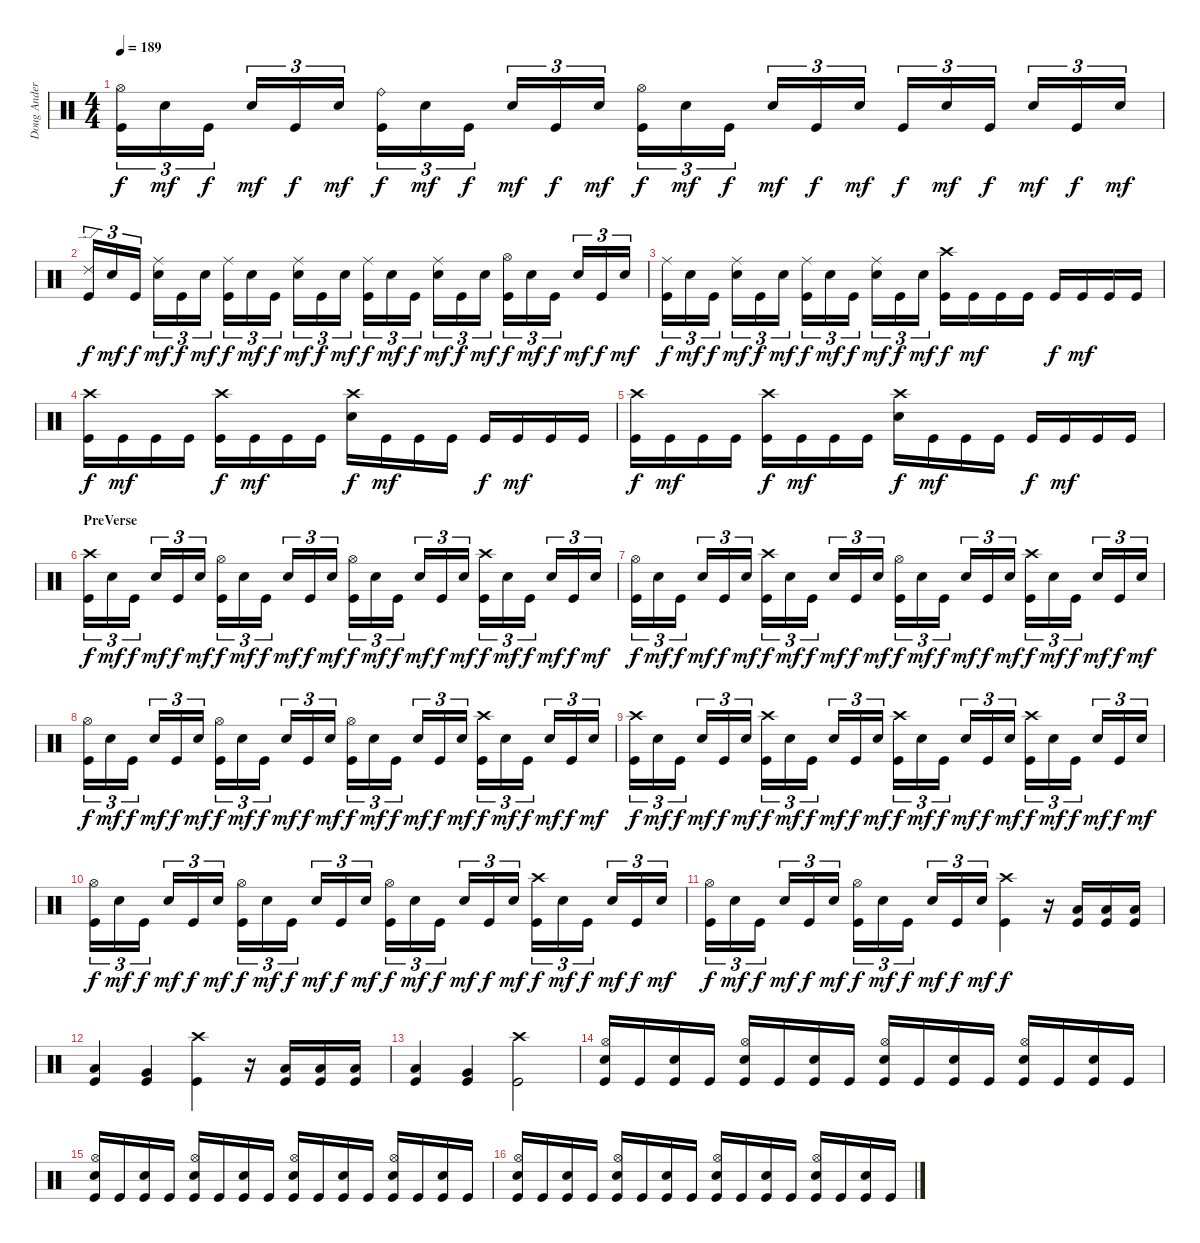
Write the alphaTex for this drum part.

\track ("Doug Anderson" "Doug Ander") {instrument percussion}
\staff {score}
\articulation defaults
\ts (4 4)
\tempo 189
\clef neutral
\ks c
("Kick (hit)" "Hi-Hat (open)").16{tu (3 2) dy f} "Snare (hit) 2".16{tu (3 2) dy mf} "Kick (hit)".16{tu (3 2) dy f beam splitsecondary} "Snare (hit) 2".16{tu (3 2) dy mf} "Kick (hit)".16{tu (3 2) dy f} "Snare (hit) 2".16{tu (3 2) dy mf} ("Kick (hit)" "Ride (bell)").16{tu (3 2) dy f} "Snare (hit) 2".16{tu (3 2) dy mf} "Kick (hit)".16{tu (3 2) dy f beam splitsecondary} "Snare (hit) 2".16{tu (3 2) dy mf} "Kick (hit)".16{tu (3 2) dy f} "Snare (hit) 2".16{tu (3 2) dy mf} ("Kick (hit)" "Hi-Hat (open)").16{tu (3 2) dy f} "Snare (hit) 2".16{tu (3 2) dy mf} "Kick (hit)".16{tu (3 2) dy f beam splitsecondary} "Snare (hit) 2".16{tu (3 2) dy mf} "Kick (hit)".16{tu (3 2) dy f} "Snare (hit) 2".16{tu (3 2) dy mf} "Kick (hit)".16{tu (3 2) dy f} "Snare (hit) 2".16{tu (3 2) dy mf} "Kick (hit)".16{tu (3 2) dy f beam splitsecondary} "Snare (hit) 2".16{tu (3 2) dy mf} "Kick (hit)".16{tu (3 2) dy f} "Snare (hit) 2".16{tu (3 2) dy mf} |
("Kick (hit)" "Ride (edge) 2").16{tu (3 2) dy f} "Snare (hit) 2".16{tu (3 2) dy mf} "Kick (hit)".16{tu (3 2) dy f beam splitsecondary} ("Snare (hit) 2" "Ride (middle)").16{tu (3 2) dy mf} "Kick (hit)".16{tu (3 2) dy f} "Snare (hit) 2".16{tu (3 2) dy mf} ("Kick (hit)" "Ride (middle)").16{tu (3 2) dy f} "Snare (hit) 2".16{tu (3 2) dy mf} "Kick (hit)".16{tu (3 2) dy f beam splitsecondary} ("Snare (hit) 2" "Ride (middle)").16{tu (3 2) dy mf} "Kick (hit)".16{tu (3 2) dy f} "Snare (hit) 2".16{tu (3 2) dy mf} ("Kick (hit)" "Ride (middle)").16{tu (3 2) dy f} "Snare (hit) 2".16{tu (3 2) dy mf} "Kick (hit)".16{tu (3 2) dy f beam splitsecondary} ("Snare (hit) 2" "Ride (middle)").16{tu (3 2) dy mf} "Kick (hit)".16{tu (3 2) dy f} "Snare (hit) 2".16{tu (3 2) dy mf} ("Kick (hit)" "Hi-Hat (open)").16{tu (3 2) dy f} "Snare (hit) 2".16{tu (3 2) dy mf} "Kick (hit)".16{tu (3 2) dy f beam splitsecondary} "Snare (hit) 2".16{tu (3 2) dy mf} "Kick (hit)".16{tu (3 2) dy f} "Snare (hit) 2".16{tu (3 2) dy mf} |
("Kick (hit)" "Ride (middle)").16{tu (3 2) dy f} "Snare (hit) 2".16{tu (3 2) dy mf} "Kick (hit)".16{tu (3 2) dy f beam splitsecondary} ("Snare (hit) 2" "Ride (middle)").16{tu (3 2) dy mf} "Kick (hit)".16{tu (3 2) dy f} "Snare (hit) 2".16{tu (3 2) dy mf} ("Kick (hit)" "Ride (middle)").16{tu (3 2) dy f} "Snare (hit) 2".16{tu (3 2) dy mf} "Kick (hit)".16{tu (3 2) dy f beam splitsecondary} ("Snare (hit) 2" "Ride (middle)").16{tu (3 2) dy mf} "Kick (hit)".16{tu (3 2) dy f} "Snare (hit) 2".16{tu (3 2) dy mf} ("Kick (hit)" "Crash high (hit)").16{dy f} "Kick (hit)".16{dy mf} "Kick (hit)".16 "Kick (hit)".16 "Kick (hit)".16{dy f} "Kick (hit)".16{dy mf} "Kick (hit)".16 "Kick (hit)".16 |
("Kick (hit)" "Crash high (hit)").16{dy f} "Kick (hit)".16{dy mf} "Kick (hit)".16 "Kick (hit)".16 ("Kick (hit)" "Crash high (hit)").16{dy f} "Kick (hit)".16{dy mf} "Kick (hit)".16 "Kick (hit)".16 ("Crash high (hit)" "Snare (hit) 2").16{dy f} "Kick (hit)".16{dy mf} "Kick (hit)".16 "Kick (hit)".16 "Kick (hit)".16{dy f} "Kick (hit)".16{dy mf} "Kick (hit)".16 "Kick (hit)".16 |
("Kick (hit)" "Crash high (hit)").16{dy f} "Kick (hit)".16{dy mf} "Kick (hit)".16 "Kick (hit)".16 ("Kick (hit)" "Crash high (hit)").16{dy f} "Kick (hit)".16{dy mf} "Kick (hit)".16 "Kick (hit)".16 ("Crash high (hit)" "Snare (hit) 2").16{dy f} "Kick (hit)".16{dy mf} "Kick (hit)".16 "Kick (hit)".16 "Kick (hit)".16{dy f} "Kick (hit)".16{dy mf} "Kick (hit)".16 "Kick (hit)".16 |
\section ("" "PreVerse")
("Kick (hit)" "Crash high (hit)").16{tu (3 2) dy f} "Snare (hit) 2".16{tu (3 2) dy mf} "Kick (hit)".16{tu (3 2) dy f beam splitsecondary} "Snare (hit) 2".16{tu (3 2) dy mf} "Kick (hit)".16{tu (3 2) dy f} "Snare (hit) 2".16{tu (3 2) dy mf} ("Kick (hit)" "Hi-Hat (open)").16{tu (3 2) dy f} "Snare (hit) 2".16{tu (3 2) dy mf} "Kick (hit)".16{tu (3 2) dy f beam splitsecondary} "Snare (hit) 2".16{tu (3 2) dy mf} "Kick (hit)".16{tu (3 2) dy f} "Snare (hit) 2".16{tu (3 2) dy mf} ("Kick (hit)" "Hi-Hat (open)").16{tu (3 2) dy f} "Snare (hit) 2".16{tu (3 2) dy mf} "Kick (hit)".16{tu (3 2) dy f beam splitsecondary} "Snare (hit) 2".16{tu (3 2) dy mf} "Kick (hit)".16{tu (3 2) dy f} "Snare (hit) 2".16{tu (3 2) dy mf} ("Kick (hit)" "Crash high (hit)").16{tu (3 2) dy f} "Snare (hit) 2".16{tu (3 2) dy mf} "Kick (hit)".16{tu (3 2) dy f beam splitsecondary} "Snare (hit) 2".16{tu (3 2) dy mf} "Kick (hit)".16{tu (3 2) dy f} "Snare (hit) 2".16{tu (3 2) dy mf} |
("Kick (hit)" "Hi-Hat (open)").16{tu (3 2) dy f} "Snare (hit) 2".16{tu (3 2) dy mf} "Kick (hit)".16{tu (3 2) dy f beam splitsecondary} "Snare (hit) 2".16{tu (3 2) dy mf} "Kick (hit)".16{tu (3 2) dy f} "Snare (hit) 2".16{tu (3 2) dy mf} ("Kick (hit)" "Crash high (hit)").16{tu (3 2) dy f} "Snare (hit) 2".16{tu (3 2) dy mf} "Kick (hit)".16{tu (3 2) dy f beam splitsecondary} "Snare (hit) 2".16{tu (3 2) dy mf} "Kick (hit)".16{tu (3 2) dy f} "Snare (hit) 2".16{tu (3 2) dy mf} ("Kick (hit)" "Hi-Hat (open)").16{tu (3 2) dy f} "Snare (hit) 2".16{tu (3 2) dy mf} "Kick (hit)".16{tu (3 2) dy f beam splitsecondary} "Snare (hit) 2".16{tu (3 2) dy mf} "Kick (hit)".16{tu (3 2) dy f} "Snare (hit) 2".16{tu (3 2) dy mf} ("Kick (hit)" "Crash high (hit)").16{tu (3 2) dy f} "Snare (hit) 2".16{tu (3 2) dy mf} "Kick (hit)".16{tu (3 2) dy f beam splitsecondary} "Snare (hit) 2".16{tu (3 2) dy mf} "Kick (hit)".16{tu (3 2) dy f} "Snare (hit) 2".16{tu (3 2) dy mf} |
("Kick (hit)" "Hi-Hat (open)").16{tu (3 2) dy f} "Snare (hit) 2".16{tu (3 2) dy mf} "Kick (hit)".16{tu (3 2) dy f beam splitsecondary} "Snare (hit) 2".16{tu (3 2) dy mf} "Kick (hit)".16{tu (3 2) dy f} "Snare (hit) 2".16{tu (3 2) dy mf} ("Kick (hit)" "Hi-Hat (open)").16{tu (3 2) dy f} "Snare (hit) 2".16{tu (3 2) dy mf} "Kick (hit)".16{tu (3 2) dy f beam splitsecondary} "Snare (hit) 2".16{tu (3 2) dy mf} "Kick (hit)".16{tu (3 2) dy f} "Snare (hit) 2".16{tu (3 2) dy mf} ("Kick (hit)" "Hi-Hat (open)").16{tu (3 2) dy f} "Snare (hit) 2".16{tu (3 2) dy mf} "Kick (hit)".16{tu (3 2) dy f beam splitsecondary} "Snare (hit) 2".16{tu (3 2) dy mf} "Kick (hit)".16{tu (3 2) dy f} "Snare (hit) 2".16{tu (3 2) dy mf} ("Kick (hit)" "Crash high (hit)").16{tu (3 2) dy f} "Snare (hit) 2".16{tu (3 2) dy mf} "Kick (hit)".16{tu (3 2) dy f beam splitsecondary} "Snare (hit) 2".16{tu (3 2) dy mf} "Kick (hit)".16{tu (3 2) dy f} "Snare (hit) 2".16{tu (3 2) dy mf} |
("Kick (hit)" "Crash high (hit)").16{tu (3 2) dy f} "Snare (hit) 2".16{tu (3 2) dy mf} "Kick (hit)".16{tu (3 2) dy f beam splitsecondary} "Snare (hit) 2".16{tu (3 2) dy mf} "Kick (hit)".16{tu (3 2) dy f} "Snare (hit) 2".16{tu (3 2) dy mf} ("Kick (hit)" "Crash high (hit)").16{tu (3 2) dy f} "Snare (hit) 2".16{tu (3 2) dy mf} "Kick (hit)".16{tu (3 2) dy f beam splitsecondary} "Snare (hit) 2".16{tu (3 2) dy mf} "Kick (hit)".16{tu (3 2) dy f} "Snare (hit) 2".16{tu (3 2) dy mf} ("Kick (hit)" "Crash high (hit)").16{tu (3 2) dy f} "Snare (hit) 2".16{tu (3 2) dy mf} "Kick (hit)".16{tu (3 2) dy f beam splitsecondary} "Snare (hit) 2".16{tu (3 2) dy mf} "Kick (hit)".16{tu (3 2) dy f} "Snare (hit) 2".16{tu (3 2) dy mf} ("Kick (hit)" "Crash high (hit)").16{tu (3 2) dy f} "Snare (hit) 2".16{tu (3 2) dy mf} "Kick (hit)".16{tu (3 2) dy f beam splitsecondary} "Snare (hit) 2".16{tu (3 2) dy mf} "Kick (hit)".16{tu (3 2) dy f} "Snare (hit) 2".16{tu (3 2) dy mf} |
("Kick (hit)" "Hi-Hat (open)").16{tu (3 2) dy f} "Snare (hit) 2".16{tu (3 2) dy mf} "Kick (hit)".16{tu (3 2) dy f beam splitsecondary} "Snare (hit) 2".16{tu (3 2) dy mf} "Kick (hit)".16{tu (3 2) dy f} "Snare (hit) 2".16{tu (3 2) dy mf} ("Kick (hit)" "Hi-Hat (open)").16{tu (3 2) dy f} "Snare (hit) 2".16{tu (3 2) dy mf} "Kick (hit)".16{tu (3 2) dy f beam splitsecondary} "Snare (hit) 2".16{tu (3 2) dy mf} "Kick (hit)".16{tu (3 2) dy f} "Snare (hit) 2".16{tu (3 2) dy mf} ("Kick (hit)" "Hi-Hat (open)").16{tu (3 2) dy f} "Snare (hit) 2".16{tu (3 2) dy mf} "Kick (hit)".16{tu (3 2) dy f beam splitsecondary} "Snare (hit) 2".16{tu (3 2) dy mf} "Kick (hit)".16{tu (3 2) dy f} "Snare (hit) 2".16{tu (3 2) dy mf} ("Kick (hit)" "Crash high (hit)").16{tu (3 2) dy f} "Snare (hit) 2".16{tu (3 2) dy mf} "Kick (hit)".16{tu (3 2) dy f beam splitsecondary} "Snare (hit) 2".16{tu (3 2) dy mf} "Kick (hit)".16{tu (3 2) dy f} "Snare (hit) 2".16{tu (3 2) dy mf} |
("Kick (hit)" "Hi-Hat (open)").16{tu (3 2) dy f} "Snare (hit) 2".16{tu (3 2) dy mf} "Kick (hit)".16{tu (3 2) dy f beam splitsecondary} "Snare (hit) 2".16{tu (3 2) dy mf} "Kick (hit)".16{tu (3 2) dy f} "Snare (hit) 2".16{tu (3 2) dy mf} ("Kick (hit)" "Hi-Hat (open)").16{tu (3 2) dy f} "Snare (hit) 2".16{tu (3 2) dy mf} "Kick (hit)".16{tu (3 2) dy f beam splitsecondary} "Snare (hit) 2".16{tu (3 2) dy mf} "Kick (hit)".16{tu (3 2) dy f} "Snare (hit) 2".16{tu (3 2) dy mf} ("Kick (hit)" "Crash high (hit)").4{dy f} r.16 ("Kick (hit)" "Low Floor Tom (hit)").16 ("Kick (hit)" "Low Floor Tom (hit)").16 ("Kick (hit)" "Low Floor Tom (hit)").16 |
("Kick (hit)" "Low Floor Tom (hit)").4 ("Kick (hit)" "Very Low Tom (hit)").4 ("Kick (hit)" "Crash high (hit)").4 r.16 ("Low Floor Tom (hit)" "Kick (hit)").16 ("Low Floor Tom (hit)" "Kick (hit)").16 ("Low Floor Tom (hit)" "Kick (hit)").16 |
("Kick (hit)" "Low Floor Tom (hit)").4 ("Kick (hit)" "Very Low Tom (hit)").4 ("Kick (hit)" "Crash high (hit)").2 |
("Kick (hit)" "Snare (hit) 2" "Hi-Hat (open)").16 "Kick (hit)".16 ("Kick (hit)" "Snare (hit) 2").16 "Kick (hit)".16 ("Kick (hit)" "Snare (hit) 2" "Hi-Hat (open)").16 "Kick (hit)".16 ("Kick (hit)" "Snare (hit) 2").16 "Kick (hit)".16 ("Kick (hit)" "Snare (hit) 2" "Hi-Hat (open)").16 "Kick (hit)".16 ("Kick (hit)" "Snare (hit) 2").16 "Kick (hit)".16 ("Kick (hit)" "Snare (hit) 2" "Hi-Hat (open)").16 "Kick (hit)".16 ("Kick (hit)" "Snare (hit) 2").16 "Kick (hit)".16 |
("Kick (hit)" "Snare (hit) 2" "Hi-Hat (open)").16 "Kick (hit)".16 ("Kick (hit)" "Snare (hit) 2").16 "Kick (hit)".16 ("Kick (hit)" "Snare (hit) 2" "Hi-Hat (open)").16 "Kick (hit)".16 ("Kick (hit)" "Snare (hit) 2").16 "Kick (hit)".16 ("Kick (hit)" "Snare (hit) 2" "Hi-Hat (open)").16 "Kick (hit)".16 ("Kick (hit)" "Snare (hit) 2").16 "Kick (hit)".16 ("Kick (hit)" "Snare (hit) 2" "Hi-Hat (open)").16 "Kick (hit)".16 ("Kick (hit)" "Snare (hit) 2").16 "Kick (hit)".16 |
("Kick (hit)" "Snare (hit) 2" "Hi-Hat (open)").16 "Kick (hit)".16 ("Kick (hit)" "Snare (hit) 2").16 "Kick (hit)".16 ("Kick (hit)" "Snare (hit) 2" "Hi-Hat (open)").16 "Kick (hit)".16 ("Kick (hit)" "Snare (hit) 2").16 "Kick (hit)".16 ("Kick (hit)" "Snare (hit) 2" "Hi-Hat (open)").16 "Kick (hit)".16 ("Kick (hit)" "Snare (hit) 2").16 "Kick (hit)".16 ("Kick (hit)" "Snare (hit) 2" "Hi-Hat (open)").16 "Kick (hit)".16 ("Kick (hit)" "Snare (hit) 2").16 "Kick (hit)".16
